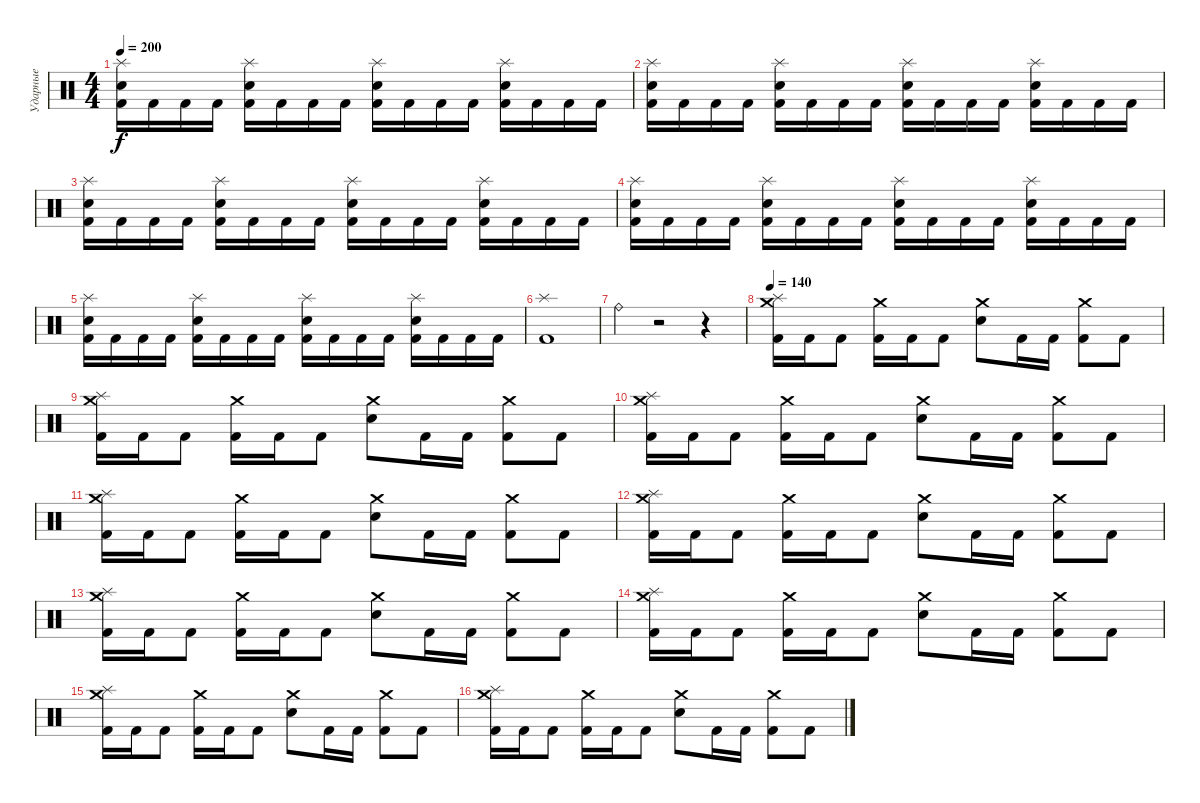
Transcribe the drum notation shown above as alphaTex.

\track ("Ударные" "Ударные") {instrument percussion}
\staff {score}
\articulation defaults
\ts (4 4)
\tempo 200
\clef neutral
\ks c
("Splash (hit)" "Electric Snare (hit)" "Kick (hit) 2").16{dy f} "Kick (hit) 2".16 "Kick (hit) 2".16 "Kick (hit) 2".16 ("Splash (hit)" "Electric Snare (hit)" "Kick (hit) 2").16 "Kick (hit) 2".16 "Kick (hit) 2".16 "Kick (hit) 2".16 ("Splash (hit)" "Electric Snare (hit)" "Kick (hit) 2").16 "Kick (hit) 2".16 "Kick (hit) 2".16 "Kick (hit) 2".16 ("Splash (hit)" "Electric Snare (hit)" "Kick (hit) 2").16 "Kick (hit) 2".16 "Kick (hit) 2".16 "Kick (hit) 2".16 |
("Splash (hit)" "Electric Snare (hit)" "Kick (hit) 2").16 "Kick (hit) 2".16 "Kick (hit) 2".16 "Kick (hit) 2".16 ("Splash (hit)" "Electric Snare (hit)" "Kick (hit) 2").16 "Kick (hit) 2".16 "Kick (hit) 2".16 "Kick (hit) 2".16 ("Splash (hit)" "Electric Snare (hit)" "Kick (hit) 2").16 "Kick (hit) 2".16 "Kick (hit) 2".16 "Kick (hit) 2".16 ("Splash (hit)" "Electric Snare (hit)" "Kick (hit) 2").16 "Kick (hit) 2".16 "Kick (hit) 2".16 "Kick (hit) 2".16 |
("Splash (hit)" "Electric Snare (hit)" "Kick (hit) 2").16 "Kick (hit) 2".16 "Kick (hit) 2".16 "Kick (hit) 2".16 ("Splash (hit)" "Electric Snare (hit)" "Kick (hit) 2").16 "Kick (hit) 2".16 "Kick (hit) 2".16 "Kick (hit) 2".16 ("Splash (hit)" "Electric Snare (hit)" "Kick (hit) 2").16 "Kick (hit) 2".16 "Kick (hit) 2".16 "Kick (hit) 2".16 ("Splash (hit)" "Electric Snare (hit)" "Kick (hit) 2").16 "Kick (hit) 2".16 "Kick (hit) 2".16 "Kick (hit) 2".16 |
("Splash (hit)" "Electric Snare (hit)" "Kick (hit) 2").16 "Kick (hit) 2".16 "Kick (hit) 2".16 "Kick (hit) 2".16 ("Splash (hit)" "Electric Snare (hit)" "Kick (hit) 2").16 "Kick (hit) 2".16 "Kick (hit) 2".16 "Kick (hit) 2".16 ("Splash (hit)" "Electric Snare (hit)" "Kick (hit) 2").16 "Kick (hit) 2".16 "Kick (hit) 2".16 "Kick (hit) 2".16 ("Splash (hit)" "Electric Snare (hit)" "Kick (hit) 2").16 "Kick (hit) 2".16 "Kick (hit) 2".16 "Kick (hit) 2".16 |
("Splash (hit)" "Electric Snare (hit)" "Kick (hit) 2").16 "Kick (hit) 2".16 "Kick (hit) 2".16 "Kick (hit) 2".16 ("Splash (hit)" "Electric Snare (hit)" "Kick (hit) 2").16 "Kick (hit) 2".16 "Kick (hit) 2".16 "Kick (hit) 2".16 ("Splash (hit)" "Electric Snare (hit)" "Kick (hit) 2").16 "Kick (hit) 2".16 "Kick (hit) 2".16 "Kick (hit) 2".16 ("Splash (hit)" "Electric Snare (hit)" "Kick (hit) 2").16 "Kick (hit) 2".16 "Kick (hit) 2".16 "Kick (hit) 2".16 |
("Splash (hit)" "Kick (hit) 2").1 |
"Ride (bell)".4 r.2 r.4 |
\tempo 140
("Crash medium (hit)" "Splash (hit)" "Kick (hit) 2").16 "Kick (hit) 2".16 "Kick (hit) 2".8 ("Crash medium (hit)" "Kick (hit) 2").16 "Kick (hit) 2".16 "Kick (hit) 2".8 ("Crash medium (hit)" "Electric Snare (hit)").8 "Kick (hit) 2".16 "Kick (hit) 2".16 ("Crash medium (hit)" "Kick (hit) 2").8 "Kick (hit) 2".8 |
("Crash medium (hit)" "Splash (hit)" "Kick (hit) 2").16 "Kick (hit) 2".16 "Kick (hit) 2".8 ("Crash medium (hit)" "Kick (hit) 2").16 "Kick (hit) 2".16 "Kick (hit) 2".8 ("Crash medium (hit)" "Electric Snare (hit)").8 "Kick (hit) 2".16 "Kick (hit) 2".16 ("Crash medium (hit)" "Kick (hit) 2").8 "Kick (hit) 2".8 |
("Crash medium (hit)" "Splash (hit)" "Kick (hit) 2").16 "Kick (hit) 2".16 "Kick (hit) 2".8 ("Crash medium (hit)" "Kick (hit) 2").16 "Kick (hit) 2".16 "Kick (hit) 2".8 ("Crash medium (hit)" "Electric Snare (hit)").8 "Kick (hit) 2".16 "Kick (hit) 2".16 ("Crash medium (hit)" "Kick (hit) 2").8 "Kick (hit) 2".8 |
("Crash medium (hit)" "Splash (hit)" "Kick (hit) 2").16 "Kick (hit) 2".16 "Kick (hit) 2".8 ("Crash medium (hit)" "Kick (hit) 2").16 "Kick (hit) 2".16 "Kick (hit) 2".8 ("Crash medium (hit)" "Electric Snare (hit)").8 "Kick (hit) 2".16 "Kick (hit) 2".16 ("Crash medium (hit)" "Kick (hit) 2").8 "Kick (hit) 2".8 |
("Crash medium (hit)" "Splash (hit)" "Kick (hit) 2").16 "Kick (hit) 2".16 "Kick (hit) 2".8 ("Crash medium (hit)" "Kick (hit) 2").16 "Kick (hit) 2".16 "Kick (hit) 2".8 ("Crash medium (hit)" "Electric Snare (hit)").8 "Kick (hit) 2".16 "Kick (hit) 2".16 ("Crash medium (hit)" "Kick (hit) 2").8 "Kick (hit) 2".8 |
("Crash medium (hit)" "Splash (hit)" "Kick (hit) 2").16 "Kick (hit) 2".16 "Kick (hit) 2".8 ("Crash medium (hit)" "Kick (hit) 2").16 "Kick (hit) 2".16 "Kick (hit) 2".8 ("Crash medium (hit)" "Electric Snare (hit)").8 "Kick (hit) 2".16 "Kick (hit) 2".16 ("Crash medium (hit)" "Kick (hit) 2").8 "Kick (hit) 2".8 |
("Crash medium (hit)" "Splash (hit)" "Kick (hit) 2").16 "Kick (hit) 2".16 "Kick (hit) 2".8 ("Crash medium (hit)" "Kick (hit) 2").16 "Kick (hit) 2".16 "Kick (hit) 2".8 ("Crash medium (hit)" "Electric Snare (hit)").8 "Kick (hit) 2".16 "Kick (hit) 2".16 ("Crash medium (hit)" "Kick (hit) 2").8 "Kick (hit) 2".8 |
("Crash medium (hit)" "Splash (hit)" "Kick (hit) 2").16 "Kick (hit) 2".16 "Kick (hit) 2".8 ("Crash medium (hit)" "Kick (hit) 2").16 "Kick (hit) 2".16 "Kick (hit) 2".8 ("Crash medium (hit)" "Electric Snare (hit)").8 "Kick (hit) 2".16 "Kick (hit) 2".16 ("Crash medium (hit)" "Kick (hit) 2").8 "Kick (hit) 2".8 |
("Crash medium (hit)" "Splash (hit)" "Kick (hit) 2").16 "Kick (hit) 2".16 "Kick (hit) 2".8 ("Crash medium (hit)" "Kick (hit) 2").16 "Kick (hit) 2".16 "Kick (hit) 2".8 ("Crash medium (hit)" "Electric Snare (hit)").8 "Kick (hit) 2".16 "Kick (hit) 2".16 ("Crash medium (hit)" "Kick (hit) 2").8 "Kick (hit) 2".8
